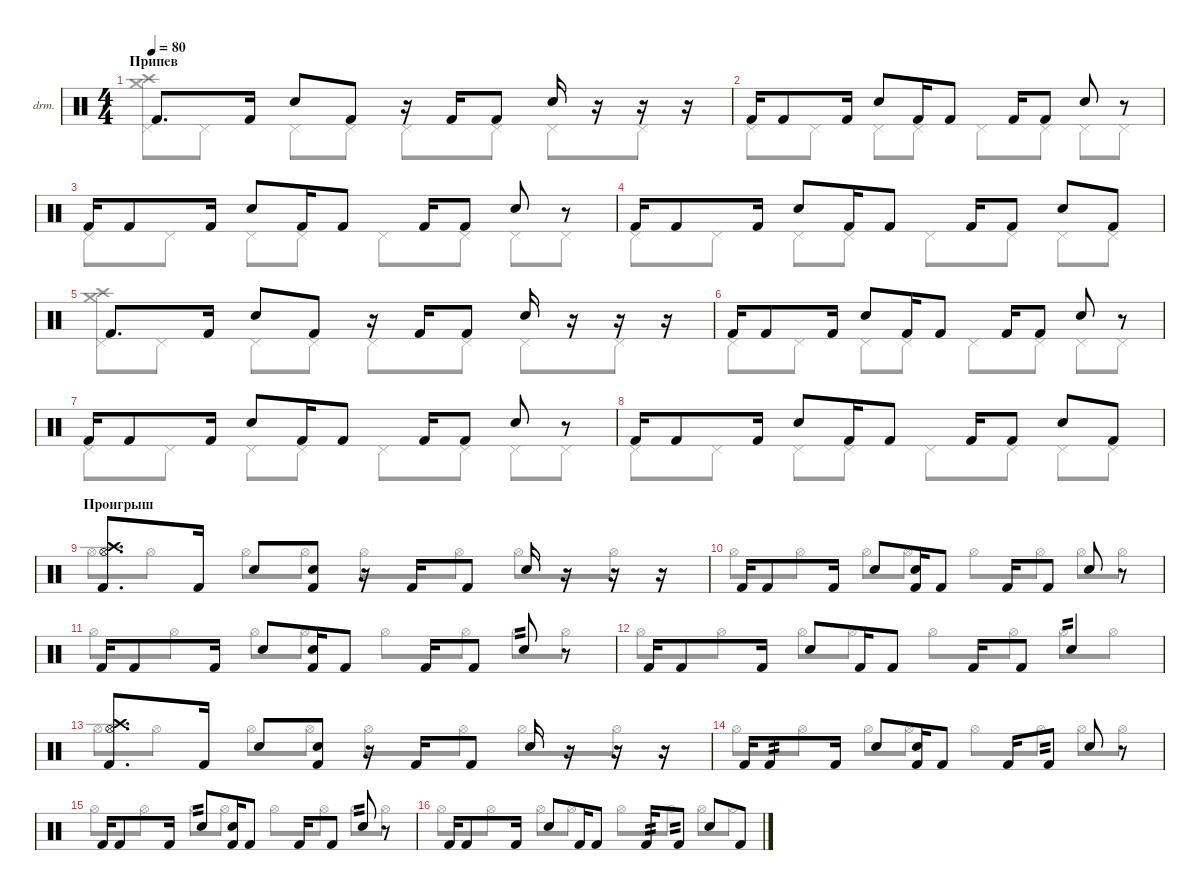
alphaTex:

\defaultSystemsLayout 4
\hideDynamics
\bracketExtendMode nobrackets
\firstSystemTrackNameOrientation horizontal
\otherSystemsTrackNameOrientation horizontal
\track ("Drumkit" "drm.") {instrument percussion}
\staff {score}
\articulation defaults
\voice
\ts (4 4)
\section ("" "Припев")
\tempo 80
\clef neutral
\ks c "Kick (hit) 2".8{d dy mf beam Up} "Kick (hit) 2".16{beam Up} "Snare (hit) 2".8{beam Up} "Kick (hit) 2".8{beam Up}
r.16{beam Up} "Kick (hit) 2".16{beam Up} "Kick (hit) 2".8{beam Up} "Snare (hit) 2".16{beam Up} r.16{beam Up} r.16{beam Up} r.16{beam Up} |
"Kick (hit) 2".16{beam Up} "Kick (hit) 2".8{beam Up} "Kick (hit) 2".16{beam Up} "Snare (hit) 2".8{beam Up} "Kick (hit) 2".16{beam Up} "Kick (hit) 2".8{beam Up} "Kick (hit) 2".16{beam Up} "Kick (hit) 2".8{beam Up} "Snare (hit) 2".8{beam Up} r.8{beam Up} |
"Kick (hit) 2".16{beam Up} "Kick (hit) 2".8{beam Up} "Kick (hit) 2".16{beam Up} "Snare (hit) 2".8{beam Up} "Kick (hit) 2".16{beam Up} "Kick (hit) 2".8{beam Up} "Kick (hit) 2".16{beam Up} "Kick (hit) 2".8{beam Up} "Snare (hit) 2".8{beam Up} r.8{beam Up} |
"Kick (hit) 2".16{beam Up} "Kick (hit) 2".8{beam Up} "Kick (hit) 2".16{beam Up} "Snare (hit) 2".8{beam Up} "Kick (hit) 2".16{beam Up} "Kick (hit) 2".8{beam Up} "Kick (hit) 2".16{beam Up} "Kick (hit) 2".8{beam Up} "Snare (hit) 2".8{beam Up} "Kick (hit) 2".8{beam Up} |
"Kick (hit) 2".8{d beam Up} "Kick (hit) 2".16{beam Up} "Snare (hit) 2".8{beam Up} "Kick (hit) 2".8{beam Up} r.16{beam Up} "Kick (hit) 2".16{beam Up} "Kick (hit) 2".8{beam Up} "Snare (hit) 2".16{beam Up} r.16{beam Up} r.16{beam Up} r.16{beam Up} |
"Kick (hit) 2".16{beam Up} "Kick (hit) 2".8{beam Up} "Kick (hit) 2".16{beam Up} "Snare (hit) 2".8{beam Up} "Kick (hit) 2".16{beam Up} "Kick (hit) 2".8{beam Up} "Kick (hit) 2".16{beam Up} "Kick (hit) 2".8{beam Up} "Snare (hit) 2".8{beam Up} r.8{beam Up} |
"Kick (hit) 2".16{beam Up} "Kick (hit) 2".8{beam Up} "Kick (hit) 2".16{beam Up} "Snare (hit) 2".8{beam Up} "Kick (hit) 2".16{beam Up} "Kick (hit) 2".8{beam Up} "Kick (hit) 2".16{beam Up} "Kick (hit) 2".8{beam Up} "Snare (hit) 2".8{beam Up} r.8{beam Up} |
"Kick (hit) 2".16{beam Up} "Kick (hit) 2".8{beam Up} "Kick (hit) 2".16{beam Up} "Snare (hit) 2".8{beam Up} "Kick (hit) 2".16{beam Up} "Kick (hit) 2".8{beam Up} "Kick (hit) 2".16{beam Up} "Kick (hit) 2".8{beam Up} "Snare (hit) 2".8{beam Up} "Kick (hit) 2".8{beam Up} |
\section ("" "Проигрыш")
("Kick (hit) 2" "Hi-Hat (open)" "Crash high (hit)").8{d beam Up} "Kick (hit) 2".16{beam Up} "Snare (hit) 2".8{beam Up} ("Kick (hit) 2" "Snare (hit) 2").8{beam Up} r.16{beam Up} "Kick (hit) 2".16{beam Up} "Kick (hit) 2".8{beam Up} "Snare (hit) 2".16{beam Up} r.16{beam Up} r.16{beam Up} r.16{beam Up} |
"Kick (hit) 2".16{beam Up} "Kick (hit) 2".8{beam Up} "Kick (hit) 2".16{beam Up} "Snare (hit) 2".8{beam Up} ("Kick (hit) 2" "Snare (hit) 2").16{beam Up} "Kick (hit) 2".8{beam Up} "Kick (hit) 2".16{beam Up} "Kick (hit) 2".8{beam Up} "Snare (hit) 2".8{beam Up} r.8{beam Up} |
"Kick (hit) 2".16{beam Up} "Kick (hit) 2".8{beam Up} "Kick (hit) 2".16{beam Up} "Snare (hit) 2".8{beam Up} ("Kick (hit) 2" "Snare (hit) 2").16{beam Up} "Kick (hit) 2".8{beam Up} "Kick (hit) 2".16{beam Up} "Kick (hit) 2".8{beam Up} "Snare (hit) 2".8{tp 2 beam Up} r.8{beam Up} |
"Kick (hit) 2".16{beam Up} "Kick (hit) 2".8{beam Up} "Kick (hit) 2".16{beam Up} "Snare (hit) 2".8{beam Up} "Kick (hit) 2".16{beam Up} "Kick (hit) 2".8{beam Up} "Kick (hit) 2".16{beam Up} "Kick (hit) 2".8{beam Up} "Snare (hit) 2".4{tp 2 beam Up} |
("Kick (hit) 2" "Hi-Hat (open)" "Crash high (hit)").8{d beam Up} "Kick (hit) 2".16{beam Up} "Snare (hit) 2".8{beam Up} ("Kick (hit) 2" "Snare (hit) 2").8{beam Up} r.16{beam Up} "Kick (hit) 2".16{beam Up} "Kick (hit) 2".8{beam Up} "Snare (hit) 2".16{beam Up} r.16{beam Up} r.16{beam Up} r.16{beam Up} |
"Kick (hit) 2".16{beam Up} "Kick (hit) 2".8{tp 2 beam Up} "Kick (hit) 2".16{beam Up} "Snare (hit) 2".8{beam Up} ("Kick (hit) 2" "Snare (hit) 2").16{beam Up} "Kick (hit) 2".8{beam Up} "Kick (hit) 2".16{beam Up} "Kick (hit) 2".8{tp 2 beam Up} "Snare (hit) 2".8{beam Up} r.8{beam Up} |
"Kick (hit) 2".16{beam Up} "Kick (hit) 2".8{beam Up} "Kick (hit) 2".16{beam Up} "Snare (hit) 2".8{tp 2 beam Up} ("Kick (hit) 2" "Snare (hit) 2").16{beam Up} "Kick (hit) 2".8{beam Up} "Kick (hit) 2".16{beam Up} "Kick (hit) 2".8{beam Up} "Snare (hit) 2".8{tp 2 beam Up} r.8{beam Up} |
"Kick (hit) 2".16{beam Up} "Kick (hit) 2".8{beam Up} "Kick (hit) 2".16{beam Up} "Snare (hit) 2".8{beam Up} "Kick (hit) 2".16{beam Up} "Kick (hit) 2".8{beam Up} "Kick (hit) 2".16{tp 2 beam Up} "Kick (hit) 2".8{tp 2 beam Up} "Snare (hit) 2".8{beam Up} "Kick (hit) 2".8{beam Up}
\voice
\clef neutral
\ottava regular
\simile none
\ks c
("Pedal Hi-Hat (hit)" "Crash medium (hit)" "Crash high (hit)").8{dy mf beam Down} "Pedal Hi-Hat (hit)".8{beam Down} "Pedal Hi-Hat (hit)".8{beam Down} "Pedal Hi-Hat (hit)".8{beam Down} "Pedal Hi-Hat (hit)".8{beam Down} "Pedal Hi-Hat (hit)".8{beam Down} "Pedal Hi-Hat (hit)".8{beam Down} "Pedal Hi-Hat (hit)".8{beam Down} |
"Pedal Hi-Hat (hit)".8{beam Down} "Pedal Hi-Hat (hit)".8{beam Down} "Pedal Hi-Hat (hit)".8{beam Down} "Pedal Hi-Hat (hit)".8{beam Down} "Pedal Hi-Hat (hit)".8{beam Down} "Pedal Hi-Hat (hit)".8{beam Down} "Pedal Hi-Hat (hit)".8{beam Down} "Pedal Hi-Hat (hit)".8{beam Down} |
"Pedal Hi-Hat (hit)".8{beam Down} "Pedal Hi-Hat (hit)".8{beam Down} "Pedal Hi-Hat (hit)".8{beam Down} "Pedal Hi-Hat (hit)".8{beam Down} "Pedal Hi-Hat (hit)".8{beam Down} "Pedal Hi-Hat (hit)".8{beam Down} "Pedal Hi-Hat (hit)".8{beam Down} "Pedal Hi-Hat (hit)".8{beam Down} |
"Pedal Hi-Hat (hit)".8{beam Down} "Pedal Hi-Hat (hit)".8{beam Down} "Pedal Hi-Hat (hit)".8{beam Down} "Pedal Hi-Hat (hit)".8{beam Down} "Pedal Hi-Hat (hit)".8{beam Down} "Pedal Hi-Hat (hit)".8{beam Down} "Pedal Hi-Hat (hit)".8{beam Down} "Pedal Hi-Hat (hit)".8{beam Down} |
("Pedal Hi-Hat (hit)" "Crash medium (hit)" "Crash high (hit)").8{beam Down} "Pedal Hi-Hat (hit)".8{beam Down} "Pedal Hi-Hat (hit)".8{beam Down} "Pedal Hi-Hat (hit)".8{beam Down} "Pedal Hi-Hat (hit)".8{beam Down} "Pedal Hi-Hat (hit)".8{beam Down} "Pedal Hi-Hat (hit)".8{beam Down} "Pedal Hi-Hat (hit)".8{beam Down} |
"Pedal Hi-Hat (hit)".8{beam Down} "Pedal Hi-Hat (hit)".8{beam Down} "Pedal Hi-Hat (hit)".8{beam Down} "Pedal Hi-Hat (hit)".8{beam Down} "Pedal Hi-Hat (hit)".8{beam Down} "Pedal Hi-Hat (hit)".8{beam Down} "Pedal Hi-Hat (hit)".8{beam Down} "Pedal Hi-Hat (hit)".8{beam Down} |
"Pedal Hi-Hat (hit)".8{beam Down} "Pedal Hi-Hat (hit)".8{beam Down} "Pedal Hi-Hat (hit)".8{beam Down} "Pedal Hi-Hat (hit)".8{beam Down} "Pedal Hi-Hat (hit)".8{beam Down} "Pedal Hi-Hat (hit)".8{beam Down} "Pedal Hi-Hat (hit)".8{beam Down} "Pedal Hi-Hat (hit)".8{beam Down} |
"Pedal Hi-Hat (hit)".8{beam Down} "Pedal Hi-Hat (hit)".8{beam Down} "Pedal Hi-Hat (hit)".8{beam Down} "Pedal Hi-Hat (hit)".8{beam Down} "Pedal Hi-Hat (hit)".8{beam Down} "Pedal Hi-Hat (hit)".8{beam Down} "Pedal Hi-Hat (hit)".8{beam Down} "Pedal Hi-Hat (hit)".8{beam Down} |
"Hi-Hat (open)".8{beam Down} "Hi-Hat (open)".8{beam Down} "Hi-Hat (open)".8{beam Down} "Hi-Hat (open)".8{beam Down} "Hi-Hat (open)".8{beam Down} "Hi-Hat (open)".8{beam Down} "Hi-Hat (open)".8{beam Down} "Hi-Hat (open)".8{beam Down} |
"Hi-Hat (open)".8{beam Down} "Hi-Hat (open)".8{beam Down} "Hi-Hat (open)".8{beam Down} "Hi-Hat (open)".8{beam Down} "Hi-Hat (open)".8{beam Down} "Hi-Hat (open)".8{beam Down} "Hi-Hat (open)".8{beam Down} "Hi-Hat (open)".8{beam Down} |
"Hi-Hat (open)".8{beam Down} "Hi-Hat (open)".8{beam Down} "Hi-Hat (open)".8{beam Down} "Hi-Hat (open)".8{beam Down} "Hi-Hat (open)".8{beam Down} "Hi-Hat (open)".8{beam Down} "Hi-Hat (open)".8{beam Down} "Hi-Hat (open)".8{beam Down} |
"Hi-Hat (open)".8{beam Down} "Hi-Hat (open)".8{beam Down} "Hi-Hat (open)".8{beam Down} "Hi-Hat (open)".8{beam Down} "Hi-Hat (open)".8{beam Down} "Hi-Hat (open)".8{beam Down} "Hi-Hat (open)".8{beam Down} "Hi-Hat (open)".8{beam Down} |
"Hi-Hat (open)".8{beam Down} "Hi-Hat (open)".8{beam Down} "Hi-Hat (open)".8{beam Down} "Hi-Hat (open)".8{beam Down} "Hi-Hat (open)".8{beam Down} "Hi-Hat (open)".8{beam Down} "Hi-Hat (open)".8{beam Down} "Hi-Hat (open)".8{beam Down} |
"Hi-Hat (open)".8{beam Down} "Hi-Hat (open)".8{beam Down} "Hi-Hat (open)".8{beam Down} "Hi-Hat (open)".8{beam Down} "Hi-Hat (open)".8{beam Down} "Hi-Hat (open)".8{beam Down} "Hi-Hat (open)".8{beam Down} "Hi-Hat (open)".8{beam Down} |
"Hi-Hat (open)".8{beam Down} "Hi-Hat (open)".8{beam Down} "Hi-Hat (open)".8{beam Down} "Hi-Hat (open)".8{beam Down} "Hi-Hat (open)".8{beam Down} "Hi-Hat (open)".8{beam Down} "Hi-Hat (open)".8{beam Down} "Hi-Hat (open)".8{beam Down} |
"Hi-Hat (open)".8{beam Down} "Hi-Hat (open)".8{beam Down} "Hi-Hat (open)".8{beam Down} "Hi-Hat (open)".8{beam Down} "Hi-Hat (open)".8{beam Down} "Hi-Hat (open)".8{beam Down} "Hi-Hat (open)".8{beam Down} "Hi-Hat (open)".8{beam Down}
